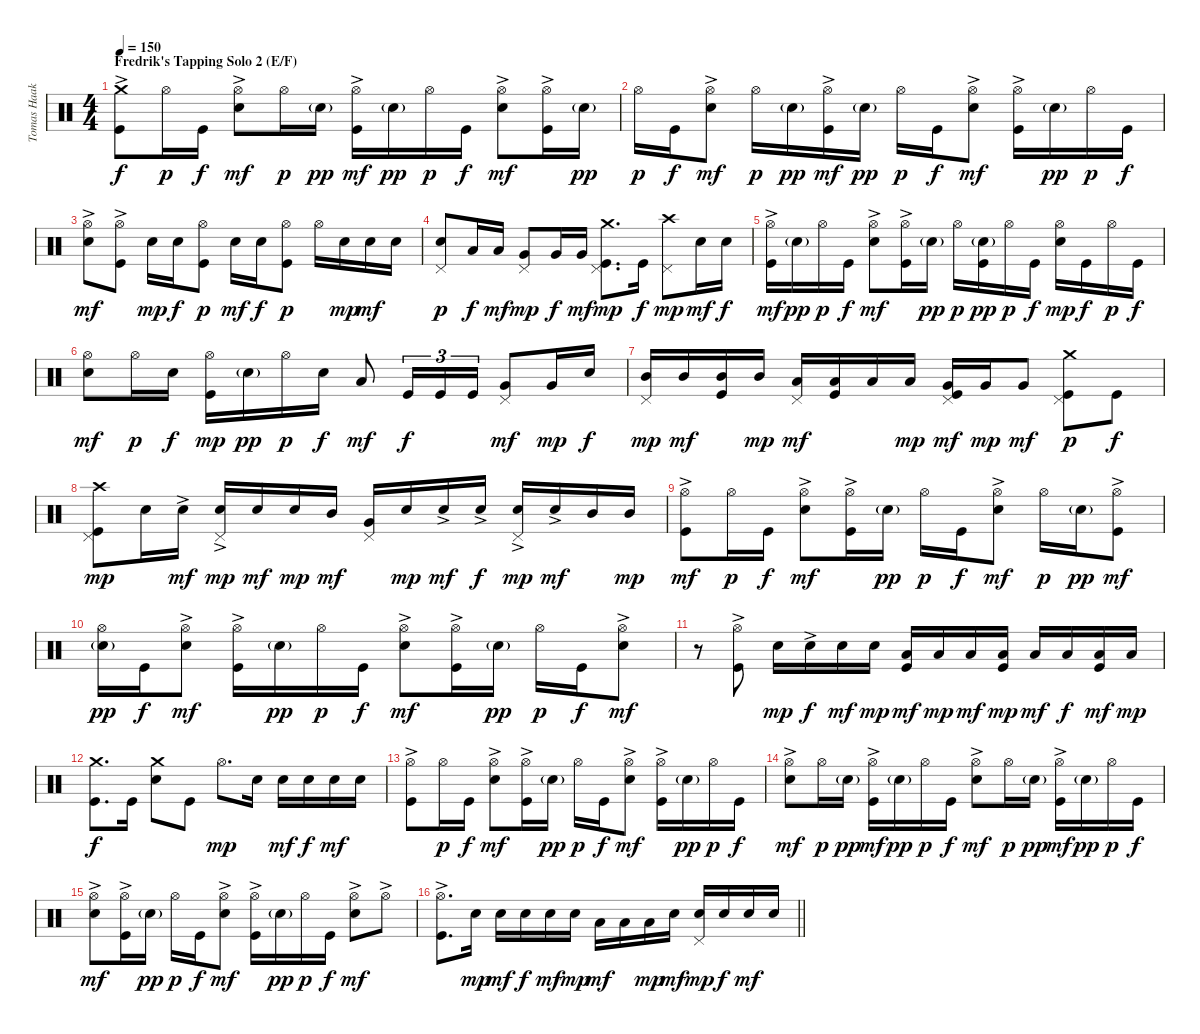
\track ("Tomas Haake (Drums)" "Tomas Haak") {instrument percussion}
\staff {score}
\articulation defaults
\ts (4 4)
\section ("" "Fredrik's Tapping Solo 2 (E/F)")
\tempo 150
\clef neutral
\ks c
("Crash medium (hit)"{ac} "Kick (hit)").8{dy f} "Hi-Hat (open)".16{dy p} "Kick (hit)".16{dy f} ("Hi-Hat (open)"{ac} "Electric Snare (hit)").8{dy mf} "Hi-Hat (open)".16{dy p} "Electric Snare (hit)"{g}.16{dy pp} ("Hi-Hat (open)"{ac} "Kick (hit)").16{dy mf} "Electric Snare (hit)"{g}.16{dy pp} "Hi-Hat (open)".16{dy p} "Kick (hit)".16{dy f} ("Hi-Hat (open)"{ac} "Electric Snare (hit)").8{dy mf} ("Hi-Hat (open)"{ac} "Kick (hit)").16 "Electric Snare (hit)"{g}.16{dy pp} |
"Hi-Hat (open)".16{dy p} "Kick (hit)".16{dy f} ("Hi-Hat (open)"{ac} "Electric Snare (hit)").8{dy mf} "Hi-Hat (open)".16{dy p} "Electric Snare (hit)"{g}.16{dy pp} ("Hi-Hat (open)"{ac} "Kick (hit)").16{dy mf} "Electric Snare (hit)"{g}.16{dy pp} "Hi-Hat (open)".16{dy p} "Kick (hit)".16{dy f} ("Hi-Hat (open)"{ac} "Electric Snare (hit)").8{dy mf} ("Hi-Hat (open)"{ac} "Kick (hit)").16 "Electric Snare (hit)"{g}.16{dy pp} "Hi-Hat (open)".16{dy p} "Kick (hit)".16{dy f} |
("Hi-Hat (open)"{ac} "Electric Snare (hit)").8{dy mf} ("Hi-Hat (open)"{ac} "Kick (hit)").8 "Electric Snare (hit)".16{dy mp} "Electric Snare (hit)".16{dy f} ("Hi-Hat (open)" "Kick (hit)").8{dy p} "Electric Snare (hit)".16{dy mf} "Electric Snare (hit)".16{dy f} ("Hi-Hat (open)" "Kick (hit)").8{dy p} "Hi-Hat (open)".16 "Electric Snare (hit)".16{dy mp} "Electric Snare (hit)".16{dy mf} "Electric Snare (hit)".16 |
("Pedal Hi-Hat (hit)" "Electric Snare (hit)").8{dy p} "Low Tom (hit)".16{dy f} "Low Tom (hit)".16{dy mf} ("Pedal Hi-Hat (hit)" "Very Low Tom (hit)").8{dy mp} "Very Low Tom (hit)".16{dy f} "Very Low Tom (hit)".16{dy mf} ("Crash medium (hit)" "Pedal Hi-Hat (hit)" "Kick (hit)").8{d dy mp} "Kick (hit)".16{dy f} ("Crash high (hit)" "Pedal Hi-Hat (hit)").8{dy mp} "Electric Snare (hit)".16{dy mf} "Electric Snare (hit)".16{dy f} |
("Hi-Hat (open)"{ac} "Kick (hit)").16{dy mf} "Electric Snare (hit)"{g}.16{dy pp} "Hi-Hat (open)".16{dy p} "Kick (hit)".16{dy f} ("Hi-Hat (open)"{ac} "Electric Snare (hit)").8{dy mf} ("Hi-Hat (open)"{ac} "Kick (hit)").16 "Electric Snare (hit)"{g}.16{dy pp} "Hi-Hat (open)".16{dy p} ("Electric Snare (hit)"{g} "Kick (hit)").16{dy pp} "Hi-Hat (open)".16{dy p} "Kick (hit)".16{dy f} ("Hi-Hat (open)" "Electric Snare (hit)").16{dy mp} "Kick (hit)".16{dy f} "Hi-Hat (open)".16{dy p} "Kick (hit)".16{dy f} |
("Hi-Hat (open)" "Electric Snare (hit)").8{dy mf} "Hi-Hat (open)".16{dy p} "Electric Snare (hit)".16{dy f} ("Hi-Hat (open)" "Kick (hit)").16{dy mp} "Electric Snare (hit)"{g}.16{dy pp} "Hi-Hat (open)".16{dy p} "Electric Snare (hit)".16{dy f} "Low Tom (hit)".8{dy mf} "Kick (hit)".16{tu (3 2) dy f} "Kick (hit)".16{tu (3 2)} "Kick (hit)".16{tu (3 2)} ("Pedal Hi-Hat (hit)" "Very Low Tom (hit)").8{dy mf} "Very Low Tom (hit)".16{dy mp} "Electric Snare (hit)".16{dy f} |
("Pedal Hi-Hat (hit)" "Mid Tom (hit)").16{dy mp} "Mid Tom (hit)".16{dy mf} ("Mid Tom (hit)" "Kick (hit)").16 "Mid Tom (hit)".16{dy mp} ("Pedal Hi-Hat (hit)" "Low Tom (hit)").16{dy mf} ("Low Tom (hit)" "Kick (hit)").16 "Low Tom (hit)".16 "Low Tom (hit)".16{dy mp} ("Pedal Hi-Hat (hit)" "Very Low Tom (hit)" "Kick (hit)").16{dy mf} "Very Low Tom (hit)".16{dy mp} "Very Low Tom (hit)".8{dy mf} ("Crash medium (hit)" "Pedal Hi-Hat (hit)" "Kick (hit)").8{dy p} "Kick (hit)".8{dy f} |
("Crash high (hit)" "Pedal Hi-Hat (hit)" "Kick (hit)").8{dy mp} "Electric Snare (hit)".16 "Electric Snare (hit)"{ac}.16{dy mf} ("Pedal Hi-Hat (hit)" "Electric Snare (hit)"{ac}).16{dy mp} "Electric Snare (hit)".16{dy mf} "Electric Snare (hit)".16{dy mp} "Mid Tom (hit)".16{dy mf} ("Pedal Hi-Hat (hit)" "Very Low Tom (hit)").16 "Electric Snare (hit)".16{dy mp} "Electric Snare (hit)"{ac}.16{dy mf} "Electric Snare (hit)"{ac}.16{dy f} ("Pedal Hi-Hat (hit)" "Electric Snare (hit)"{ac}).16{dy mp} "Electric Snare (hit)"{ac}.16{dy mf} "Mid Tom (hit)".16 "Mid Tom (hit)".16{dy mp} |
("Hi-Hat (open)"{ac} "Kick (hit)").8{dy mf} "Hi-Hat (open)".16{dy p} "Kick (hit)".16{dy f} ("Hi-Hat (open)"{ac} "Electric Snare (hit)").8{dy mf} ("Hi-Hat (open)"{ac} "Kick (hit)").16 "Electric Snare (hit)"{g}.16{dy pp} "Hi-Hat (open)".16{dy p} "Kick (hit)".16{dy f} ("Hi-Hat (open)"{ac} "Electric Snare (hit)").8{dy mf} "Hi-Hat (open)".16{dy p} "Electric Snare (hit)"{g}.16{dy pp} ("Hi-Hat (open)"{ac} "Kick (hit)").8{dy mf} |
("Hi-Hat (open)" "Electric Snare (hit)"{g}).16{dy pp} "Kick (hit)".16{dy f} ("Hi-Hat (open)"{ac} "Electric Snare (hit)").8{dy mf} ("Hi-Hat (open)"{ac} "Kick (hit)").16 "Electric Snare (hit)"{g}.16{dy pp} "Hi-Hat (open)".16{dy p} "Kick (hit)".16{dy f} ("Hi-Hat (open)"{ac} "Electric Snare (hit)").8{dy mf} ("Hi-Hat (open)"{ac} "Kick (hit)").16 "Electric Snare (hit)"{g}.16{dy pp} "Hi-Hat (open)".16{dy p} "Kick (hit)".16{dy f} ("Hi-Hat (open)"{ac} "Electric Snare (hit)").8{dy mf} |
r.8 ("Hi-Hat (open)"{ac} "Kick (hit)").8 "Electric Snare (hit)".16{dy mp} "Electric Snare (hit)"{ac}.16{dy f} "Electric Snare (hit)".16{dy mf} "Electric Snare (hit)".16{dy mp} ("Low Tom (hit)" "Kick (hit)").16{dy mf} "Low Tom (hit)".16{dy mp} "Low Tom (hit)".16{dy mf} ("Low Tom (hit)" "Kick (hit)").16{dy mp} "Low Floor Tom (hit)".16{dy mf} "Low Floor Tom (hit)".16{dy f} ("Low Floor Tom (hit)" "Kick (hit)").16{dy mf} "Low Floor Tom (hit)".16{dy mp} |
("Crash medium (hit)" "Kick (hit)").8{d dy f} "Kick (hit)".16 ("Crash medium (hit)" "Electric Snare (hit)").8 "Kick (hit)".8 "Hi-Hat (open)".8{d dy mp} "Electric Snare (hit)".16 "Electric Snare (hit)".16{dy mf} "Electric Snare (hit)".16{dy f} "Electric Snare (hit)".16{dy mf} "Electric Snare (hit)".16 |
("Hi-Hat (open)"{ac} "Kick (hit)").8 "Hi-Hat (open)".16{dy p} "Kick (hit)".16{dy f} ("Hi-Hat (open)"{ac} "Electric Snare (hit)").8{dy mf} ("Hi-Hat (open)"{ac} "Kick (hit)").16 "Electric Snare (hit)"{g}.16{dy pp} "Hi-Hat (open)".16{dy p} "Kick (hit)".16{dy f} ("Hi-Hat (open)"{ac} "Electric Snare (hit)").8{dy mf} ("Hi-Hat (open)"{ac} "Kick (hit)").16 "Electric Snare (hit)"{g}.16{dy pp} "Hi-Hat (open)".16{dy p} "Kick (hit)".16{dy f} |
("Hi-Hat (open)"{ac} "Electric Snare (hit)").8{dy mf} "Hi-Hat (open)".16{dy p} "Electric Snare (hit)"{g}.16{dy pp} ("Hi-Hat (open)"{ac} "Kick (hit)").16{dy mf} "Electric Snare (hit)"{g}.16{dy pp} "Hi-Hat (open)".16{dy p} "Kick (hit)".16{dy f} ("Hi-Hat (open)"{ac} "Electric Snare (hit)").8{dy mf} "Hi-Hat (open)".16{dy p} "Electric Snare (hit)"{g}.16{dy pp} ("Hi-Hat (open)"{ac} "Kick (hit)").16{dy mf} "Electric Snare (hit)"{g}.16{dy pp} "Hi-Hat (open)".16{dy p} "Kick (hit)".16{dy f} |
("Hi-Hat (open)"{ac} "Electric Snare (hit)").8{dy mf} ("Hi-Hat (open)"{ac} "Kick (hit)").16 "Electric Snare (hit)"{g}.16{dy pp} "Hi-Hat (open)".16{dy p} "Kick (hit)".16{dy f} ("Hi-Hat (open)"{ac} "Electric Snare (hit)").8{dy mf} ("Hi-Hat (open)"{ac} "Kick (hit)").16 "Electric Snare (hit)"{g}.16{dy pp} "Hi-Hat (open)".16{dy p} "Kick (hit)".16{dy f} ("Hi-Hat (open)"{ac} "Electric Snare (hit)").8{dy mf} "Hi-Hat (open)"{ac}.8 |
\barLineRight lightlight
("Hi-Hat (open)"{ac} "Kick (hit)").8{d} "Electric Snare (hit)".16{dy mp} "Electric Snare (hit)".16{dy mf} "Electric Snare (hit)".16{dy f} "Electric Snare (hit)".16{dy mf} "Electric Snare (hit)".16{dy mp} "Low Tom (hit)".16{dy mf} "Low Tom (hit)".16 "Low Tom (hit)".16{dy mp} "Electric Snare (hit)".16{dy mf} ("Pedal Hi-Hat (hit)" "Electric Snare (hit)").16{dy mp} "Electric Snare (hit)".16{dy f} "Electric Snare (hit)".16{dy mf} "Electric Snare (hit)".16
